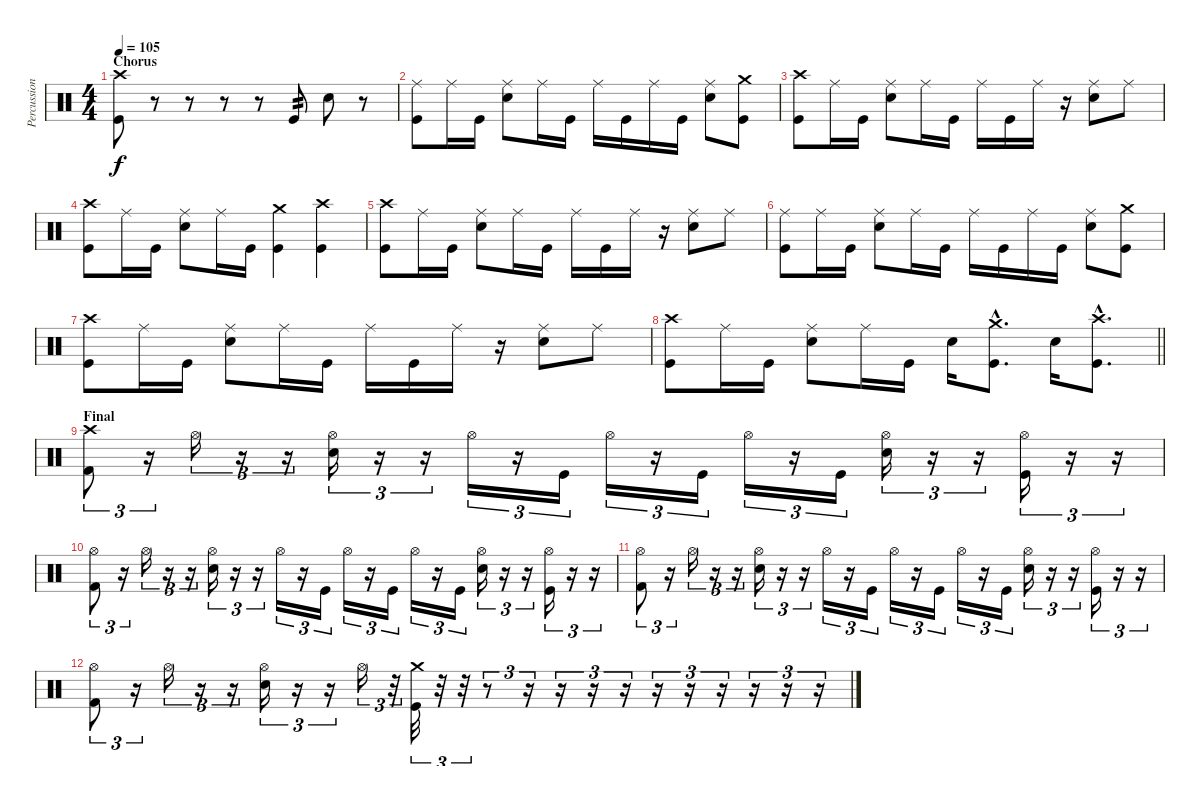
\track ("Percussions" "Percussion") {instrument percussion}
\staff {score}
\articulation defaults
\ts (4 4)
\section ("" "Chorus")
\tempo 105
\clef neutral
\ks c
("Crash high (hit)" "Kick (hit)").8{dy f} r.8 r.8 r.8 r.8 "Kick (hit)".8{tp 2} "Snare (hit) 2".8 r.8 |
("Ride (middle)" "Kick (hit)").8 "Ride (middle)".16 "Kick (hit)".16 ("Ride (middle)" "Snare (hit) 2").8 "Ride (middle)".16 "Kick (hit)".16 "Ride (middle)".16 "Kick (hit)".16 "Ride (middle)".16 "Kick (hit)".16 ("Ride (middle)" "Snare (hit) 2").8 ("Crash medium (hit)" "Kick (hit)").8 |
("Crash high (hit)" "Kick (hit)").8 "Ride (middle)".16 "Kick (hit)".16 ("Ride (middle)" "Snare (hit) 2").8 "Ride (middle)".16 "Kick (hit)".16 "Ride (middle)".16 "Kick (hit)".16 "Ride (middle)".16 r.16 ("Ride (middle)" "Snare (hit) 2").8 "Ride (middle)".8 |
("Crash high (hit)" "Kick (hit)").8 "Ride (middle)".16 "Kick (hit)".16 ("Ride (middle)" "Snare (hit) 2").8 "Ride (middle)".16 "Kick (hit)".16 ("Crash medium (hit)" "Kick (hit)").4 ("Crash high (hit)" "Kick (hit)").4 |
("Crash high (hit)" "Kick (hit)").8 "Ride (middle)".16 "Kick (hit)".16 ("Ride (middle)" "Snare (hit) 2").8 "Ride (middle)".16 "Kick (hit)".16 "Ride (middle)".16 "Kick (hit)".16 "Ride (middle)".16 r.16 ("Ride (middle)" "Snare (hit) 2").8 "Ride (middle)".8 |
("Ride (middle)" "Kick (hit)").8 "Ride (middle)".16 "Kick (hit)".16 ("Ride (middle)" "Snare (hit) 2").8 "Ride (middle)".16 "Kick (hit)".16 "Ride (middle)".16 "Kick (hit)".16 "Ride (middle)".16 "Kick (hit)".16 ("Ride (middle)" "Snare (hit) 2").8 ("Crash medium (hit)" "Kick (hit)").8 |
("Crash high (hit)" "Kick (hit)").8 "Ride (middle)".16 "Kick (hit)".16 ("Ride (middle)" "Snare (hit) 2").8 "Ride (middle)".16 "Kick (hit)".16 "Ride (middle)".16 "Kick (hit)".16 "Ride (middle)".16 r.16 ("Ride (middle)" "Snare (hit) 2").8 "Ride (middle)".8 |
\barLineRight lightlight
("Crash high (hit)" "Kick (hit)").8 "Ride (middle)".16 "Kick (hit)".16 ("Ride (middle)" "Snare (hit) 2").8 "Ride (middle)".16 "Kick (hit)".16 "Snare (hit) 2".16 ("Crash medium (hit)"{hac} "Kick (hit)"{hac}).8{d} "Snare (hit) 2".16 ("Crash high (hit)"{hac} "Kick (hit)"{hac}).8{d} |
\section ("" "Final")
("Crash high (hit)" "Kick (hit) 2").8{tu (3 2)} r.16{tu (3 2)} "Hi-Hat (open)".16{tu (3 2)} r.16{tu (3 2)} r.16{tu (3 2)} ("Hi-Hat (open)" "Snare (hit) 2").16{tu (3 2)} r.16{tu (3 2)} r.16{tu (3 2)} "Hi-Hat (open)".16{tu (3 2)} r.16{tu (3 2)} "Kick (hit)".16{tu (3 2)} "Hi-Hat (open)".16{tu (3 2)} r.16{tu (3 2)} "Kick (hit)".16{tu (3 2)} "Hi-Hat (open)".16{tu (3 2)} r.16{tu (3 2)} "Kick (hit)".16{tu (3 2)} ("Hi-Hat (open)" "Snare (hit) 2").16{tu (3 2)} r.16{tu (3 2)} r.16{tu (3 2)} ("Hi-Hat (open)" "Kick (hit)").16{tu (3 2)} r.16{tu (3 2)} r.16{tu (3 2)} |
("Hi-Hat (open)" "Kick (hit) 2").8{tu (3 2)} r.16{tu (3 2)} "Hi-Hat (open)".16{tu (3 2)} r.16{tu (3 2)} r.16{tu (3 2)} ("Hi-Hat (open)" "Snare (hit) 2").16{tu (3 2)} r.16{tu (3 2)} r.16{tu (3 2)} "Hi-Hat (open)".16{tu (3 2)} r.16{tu (3 2)} "Kick (hit)".16{tu (3 2)} "Hi-Hat (open)".16{tu (3 2)} r.16{tu (3 2)} "Kick (hit)".16{tu (3 2)} "Hi-Hat (open)".16{tu (3 2)} r.16{tu (3 2)} "Kick (hit)".16{tu (3 2)} ("Hi-Hat (open)" "Snare (hit) 2").16{tu (3 2)} r.16{tu (3 2)} r.16{tu (3 2)} ("Hi-Hat (open)" "Kick (hit)").16{tu (3 2)} r.16{tu (3 2)} r.16{tu (3 2)} |
("Hi-Hat (open)" "Kick (hit) 2").8{tu (3 2)} r.16{tu (3 2)} "Hi-Hat (open)".16{tu (3 2)} r.16{tu (3 2)} r.16{tu (3 2)} ("Hi-Hat (open)" "Snare (hit) 2").16{tu (3 2)} r.16{tu (3 2)} r.16{tu (3 2)} "Hi-Hat (open)".16{tu (3 2)} r.16{tu (3 2)} "Kick (hit)".16{tu (3 2)} "Hi-Hat (open)".16{tu (3 2)} r.16{tu (3 2)} "Kick (hit)".16{tu (3 2)} "Hi-Hat (open)".16{tu (3 2)} r.16{tu (3 2)} "Kick (hit)".16{tu (3 2)} ("Hi-Hat (open)" "Snare (hit) 2").16{tu (3 2)} r.16{tu (3 2)} r.16{tu (3 2)} ("Hi-Hat (open)" "Kick (hit)").16{tu (3 2)} r.16{tu (3 2)} r.16{tu (3 2)} |
("Hi-Hat (open)" "Kick (hit) 2").8{tu (3 2)} r.16{tu (3 2)} "Hi-Hat (open)".16{tu (3 2)} r.16{tu (3 2)} r.16{tu (3 2)} ("Hi-Hat (open)" "Snare (hit) 2").16{tu (3 2)} r.16{tu (3 2)} r.16{tu (3 2)} "Hi-Hat (open)".16{tu (3 2)} r.32{tu (3 2)} ("Crash medium (hit)" "Kick (hit)").32{tu (3 2)} r.32{tu (3 2)} r.32{tu (3 2)} r.8{tu (3 2)} r.16{tu (3 2)} r.16{tu (3 2)} r.16{tu (3 2)} r.16{tu (3 2)} r.16{tu (3 2)} r.16{tu (3 2)} r.16{tu (3 2)} r.16{tu (3 2)} r.16{tu (3 2)} r.16{tu (3 2)}
